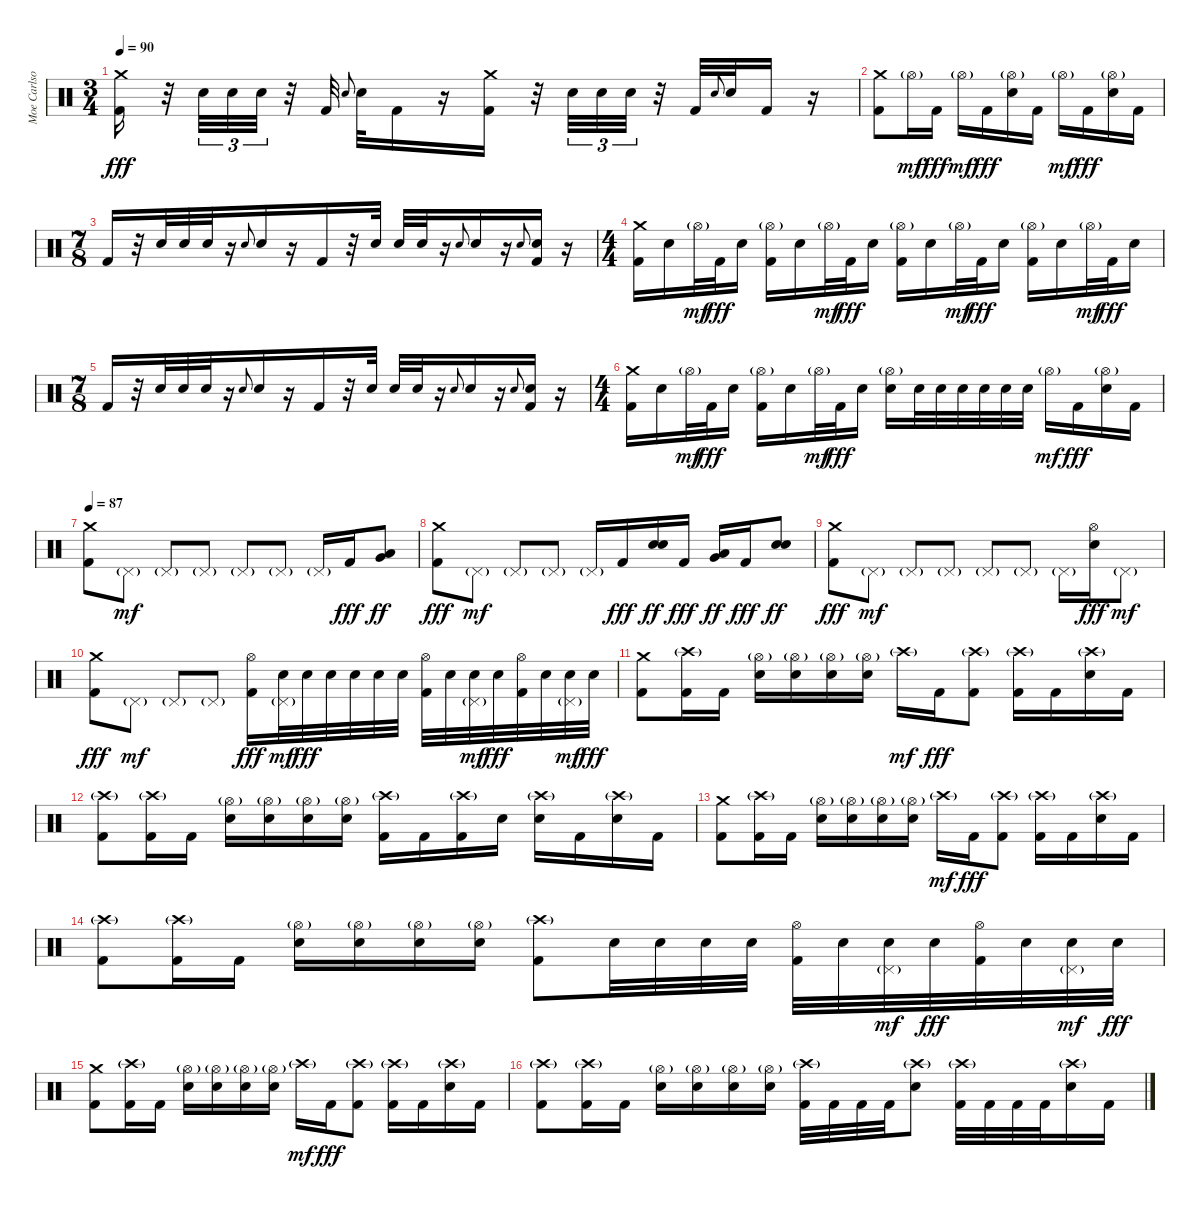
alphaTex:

\track ("Moe Carlson" "Moe Carlso") {instrument percussion}
\staff {score}
\articulation defaults
\ts (3 4)
\tempo 90
\clef neutral
\ks c
("Crash medium (hit)" "Kick (hit) 2").16{dy fff} r.32 "Electric Snare (hit)".32{tu (3 2)} "Electric Snare (hit)".32{tu (3 2)} "Electric Snare (hit)".32{tu (3 2)} r.32 "Kick (hit) 2".32 "Electric Snare (hit)".8{gr onbeat} "Electric Snare (hit)".32 "Kick (hit) 2".16 r.16 ("Crash medium (hit)" "Kick (hit) 2").16 r.32 "Electric Snare (hit)".32{tu (3 2)} "Electric Snare (hit)".32{tu (3 2)} "Electric Snare (hit)".32{tu (3 2)} r.32 "Kick (hit) 2".32 "Electric Snare (hit)".8{gr onbeat} "Electric Snare (hit)".32 "Kick (hit) 2".16 r.16 |
("Crash medium (hit)" "Kick (hit) 2").8 "Hi-Hat (open)"{g}.16{dy mf} "Kick (hit) 2".16{dy fff} "Hi-Hat (open)"{g}.16{dy mf} "Kick (hit) 2".16{dy fff} ("Hi-Hat (open)"{g} "Electric Snare (hit)").16 "Kick (hit) 2".16 "Hi-Hat (open)"{g}.16{dy mf} "Kick (hit) 2".16{dy fff} ("Hi-Hat (open)"{g} "Electric Snare (hit)").16 "Kick (hit) 2".16 |
\ts (7 8)
"Kick (hit) 2".16 r.32 "Electric Snare (hit)".32 "Electric Snare (hit)".32 "Electric Snare (hit)".32 r.16 "Electric Snare (hit)".8{gr onbeat} "Electric Snare (hit)".16 r.16 "Kick (hit) 2".16 r.32 "Electric Snare (hit)".32 "Electric Snare (hit)".32 "Electric Snare (hit)".32 r.16 "Electric Snare (hit)".8{gr onbeat} "Electric Snare (hit)".16 r.16 "Electric Snare (hit)".8{gr onbeat} ("Electric Snare (hit)" "Kick (hit) 2").16 r.16 |
\ts (4 4)
("Crash medium (hit)" "Kick (hit) 2").16 "Electric Snare (hit)".16 "Hi-Hat (open)"{g}.32{dy mf} "Kick (hit) 2".32{dy fff} "Electric Snare (hit)".16 ("Hi-Hat (open)"{g} "Kick (hit) 2").16 "Electric Snare (hit)".16 "Hi-Hat (open)"{g}.32{dy mf} "Kick (hit) 2".32{dy fff} "Electric Snare (hit)".16 ("Hi-Hat (open)"{g} "Kick (hit) 2").16 "Electric Snare (hit)".16 "Hi-Hat (open)"{g}.32{dy mf} "Kick (hit) 2".32{dy fff} "Electric Snare (hit)".16 ("Hi-Hat (open)"{g} "Kick (hit) 2").16 "Electric Snare (hit)".16 "Hi-Hat (open)"{g}.32{dy mf} "Kick (hit) 2".32{dy fff} "Electric Snare (hit)".16 |
\ts (7 8)
"Kick (hit) 2".16 r.32 "Electric Snare (hit)".32 "Electric Snare (hit)".32 "Electric Snare (hit)".32 r.16 "Electric Snare (hit)".8{gr onbeat} "Electric Snare (hit)".16 r.16 "Kick (hit) 2".16 r.32 "Electric Snare (hit)".32 "Electric Snare (hit)".32 "Electric Snare (hit)".32 r.16 "Electric Snare (hit)".8{gr onbeat} "Electric Snare (hit)".16 r.16 "Electric Snare (hit)".8{gr onbeat} ("Electric Snare (hit)" "Kick (hit) 2").16 r.16 |
\ts (4 4)
("Crash medium (hit)" "Kick (hit) 2").16 "Electric Snare (hit)".16 "Hi-Hat (open)"{g}.32{dy mf} "Kick (hit) 2".32{dy fff} "Electric Snare (hit)".16 ("Hi-Hat (open)"{g} "Kick (hit) 2").16 "Electric Snare (hit)".16 "Hi-Hat (open)"{g}.32{dy mf} "Kick (hit) 2".32{dy fff} "Electric Snare (hit)".16 ("Hi-Hat (open)"{g} "Electric Snare (hit)").16 "Electric Snare (hit)".32 "Electric Snare (hit)".32 "Electric Snare (hit)".32 "Electric Snare (hit)".32 "Electric Snare (hit)".32 "Electric Snare (hit)".32 "Hi-Hat (open)"{g}.16{dy mf} "Kick (hit) 2".16{dy fff} ("Hi-Hat (open)"{g} "Electric Snare (hit)").16 "Kick (hit) 2".16 |
\tempo 87
("Crash medium (hit)" "Kick (hit) 2").8 "Pedal Hi-Hat (hit)"{g}.8{dy mf} "Pedal Hi-Hat (hit)"{g}.8 "Pedal Hi-Hat (hit)"{g}.8 "Pedal Hi-Hat (hit)"{g}.8 "Pedal Hi-Hat (hit)"{g}.8 "Pedal Hi-Hat (hit)"{g}.16 "Kick (hit) 2".16{dy fff} ("Very Low Tom (hit)" "Low Floor Tom (hit)").8{dy ff} |
("Crash medium (hit)" "Kick (hit) 2").8{dy fff} "Pedal Hi-Hat (hit)"{g}.8{dy mf} "Pedal Hi-Hat (hit)"{g}.8 "Pedal Hi-Hat (hit)"{g}.8 "Pedal Hi-Hat (hit)"{g}.16 "Kick (hit) 2".16{dy fff} ("Electric Snare (hit)" "Electric Snare (hit)").16{dy ff} "Kick (hit) 2".16{dy fff} ("Very Low Tom (hit)" "Low Floor Tom (hit)").16{dy ff} "Kick (hit) 2".16{dy fff} ("Electric Snare (hit)" "Electric Snare (hit)").8{dy ff} |
("Crash medium (hit)" "Kick (hit) 2").8{dy fff} "Pedal Hi-Hat (hit)"{g}.8{dy mf} "Pedal Hi-Hat (hit)"{g}.8 "Pedal Hi-Hat (hit)"{g}.8 "Pedal Hi-Hat (hit)"{g}.8 "Pedal Hi-Hat (hit)"{g}.8 "Pedal Hi-Hat (hit)"{g}.16 ("Hi-Hat (open)" "Electric Snare (hit)").16{dy fff} "Pedal Hi-Hat (hit)"{g}.8{dy mf} |
("Crash medium (hit)" "Kick (hit) 2").8{dy fff} "Pedal Hi-Hat (hit)"{g}.8{dy mf} "Pedal Hi-Hat (hit)"{g}.8 "Pedal Hi-Hat (hit)"{g}.8 ("Hi-Hat (open)" "Kick (hit) 2").16{dy fff} ("Electric Snare (hit)" "Pedal Hi-Hat (hit)"{g}).32{dy mf} "Electric Snare (hit)".32{dy fff} "Electric Snare (hit)".32 "Electric Snare (hit)".32 "Electric Snare (hit)".32 "Electric Snare (hit)".32 ("Hi-Hat (open)" "Kick (hit) 2").32 "Electric Snare (hit)".32 ("Electric Snare (hit)" "Pedal Hi-Hat (hit)"{g}).32{dy mf} "Electric Snare (hit)".32{dy fff} ("Hi-Hat (open)" "Kick (hit) 2").32 "Electric Snare (hit)".32 ("Electric Snare (hit)" "Pedal Hi-Hat (hit)"{g}).32{dy mf} "Electric Snare (hit)".32{dy fff} |
("Crash medium (hit)" "Kick (hit) 2").8 ("Crash high (hit)"{g} "Kick (hit) 2").16 "Kick (hit) 2".16 ("Hi-Hat (open)"{g} "Electric Snare (hit)").16 ("Hi-Hat (open)"{g} "Electric Snare (hit)").16 ("Hi-Hat (open)"{g} "Electric Snare (hit)").16 ("Hi-Hat (open)"{g} "Electric Snare (hit)").16 "Crash high (hit)"{g}.16{dy mf} "Kick (hit) 2".16{dy fff} ("Crash high (hit)"{g} "Kick (hit) 2").8 ("Crash high (hit)"{g} "Kick (hit) 2").16 "Kick (hit) 2".16 ("Crash high (hit)"{g} "Electric Snare (hit)").16 "Kick (hit) 2".16 |
("Crash high (hit)"{g} "Kick (hit) 2").8 ("Crash high (hit)"{g} "Kick (hit) 2").16 "Kick (hit) 2".16 ("Hi-Hat (open)"{g} "Electric Snare (hit)").16 ("Hi-Hat (open)"{g} "Electric Snare (hit)").16 ("Hi-Hat (open)"{g} "Electric Snare (hit)").16 ("Hi-Hat (open)"{g} "Electric Snare (hit)").16 ("Crash high (hit)"{g} "Kick (hit) 2").16 "Kick (hit) 2".16 ("Crash high (hit)"{g} "Kick (hit) 2").16 "Electric Snare (hit)".16 ("Crash high (hit)"{g} "Electric Snare (hit)").16 "Kick (hit) 2".16 ("Crash high (hit)"{g} "Electric Snare (hit)").16 "Kick (hit) 2".16 |
("Crash medium (hit)" "Kick (hit) 2").8 ("Crash high (hit)"{g} "Kick (hit) 2").16 "Kick (hit) 2".16 ("Hi-Hat (open)"{g} "Electric Snare (hit)").16 ("Hi-Hat (open)"{g} "Electric Snare (hit)").16 ("Hi-Hat (open)"{g} "Electric Snare (hit)").16 ("Hi-Hat (open)"{g} "Electric Snare (hit)").16 "Crash high (hit)"{g}.16{dy mf} "Kick (hit) 2".16{dy fff} ("Crash high (hit)"{g} "Kick (hit) 2").8 ("Crash high (hit)"{g} "Kick (hit) 2").16 "Kick (hit) 2".16 ("Crash high (hit)"{g} "Electric Snare (hit)").16 "Kick (hit) 2".16 |
("Crash high (hit)"{g} "Kick (hit) 2").8 ("Crash high (hit)"{g} "Kick (hit) 2").16 "Kick (hit) 2".16 ("Hi-Hat (open)"{g} "Electric Snare (hit)").16 ("Hi-Hat (open)"{g} "Electric Snare (hit)").16 ("Hi-Hat (open)"{g} "Electric Snare (hit)").16 ("Hi-Hat (open)"{g} "Electric Snare (hit)").16 ("Crash high (hit)"{g} "Kick (hit) 2").8 "Electric Snare (hit)".32 "Electric Snare (hit)".32 "Electric Snare (hit)".32 "Electric Snare (hit)".32 ("Hi-Hat (open)" "Kick (hit) 2").32 "Electric Snare (hit)".32 ("Electric Snare (hit)" "Pedal Hi-Hat (hit)"{g}).32{dy mf} "Electric Snare (hit)".32{dy fff} ("Hi-Hat (open)" "Kick (hit) 2").32 "Electric Snare (hit)".32 ("Electric Snare (hit)" "Pedal Hi-Hat (hit)"{g}).32{dy mf} "Electric Snare (hit)".32{dy fff} |
("Crash medium (hit)" "Kick (hit) 2").8 ("Crash high (hit)"{g} "Kick (hit) 2").16 "Kick (hit) 2".16 ("Hi-Hat (open)"{g} "Electric Snare (hit)").16 ("Hi-Hat (open)"{g} "Electric Snare (hit)").16 ("Hi-Hat (open)"{g} "Electric Snare (hit)").16 ("Hi-Hat (open)"{g} "Electric Snare (hit)").16 "Crash high (hit)"{g}.16{dy mf} "Kick (hit) 2".16{dy fff} ("Crash high (hit)"{g} "Kick (hit) 2").8 ("Crash high (hit)"{g} "Kick (hit) 2").16 "Kick (hit) 2".16 ("Crash high (hit)"{g} "Electric Snare (hit)").16 "Kick (hit) 2".16 |
("Crash high (hit)"{g} "Kick (hit) 2").8 ("Crash high (hit)"{g} "Kick (hit) 2").16 "Kick (hit) 2".16 ("Hi-Hat (open)"{g} "Electric Snare (hit)").16 ("Hi-Hat (open)"{g} "Electric Snare (hit)").16 ("Hi-Hat (open)"{g} "Electric Snare (hit)").16 ("Hi-Hat (open)"{g} "Electric Snare (hit)").16 ("Crash high (hit)"{g} "Kick (hit) 2").32 "Kick (hit) 2".32 "Kick (hit) 2".32 "Kick (hit) 2".32 ("Crash high (hit)"{g} "Electric Snare (hit)").8 ("Crash high (hit)"{g} "Kick (hit) 2").32 "Kick (hit) 2".32 "Kick (hit) 2".32 "Kick (hit) 2".32 ("Crash high (hit)"{g} "Electric Snare (hit)").16 "Kick (hit) 2".16
